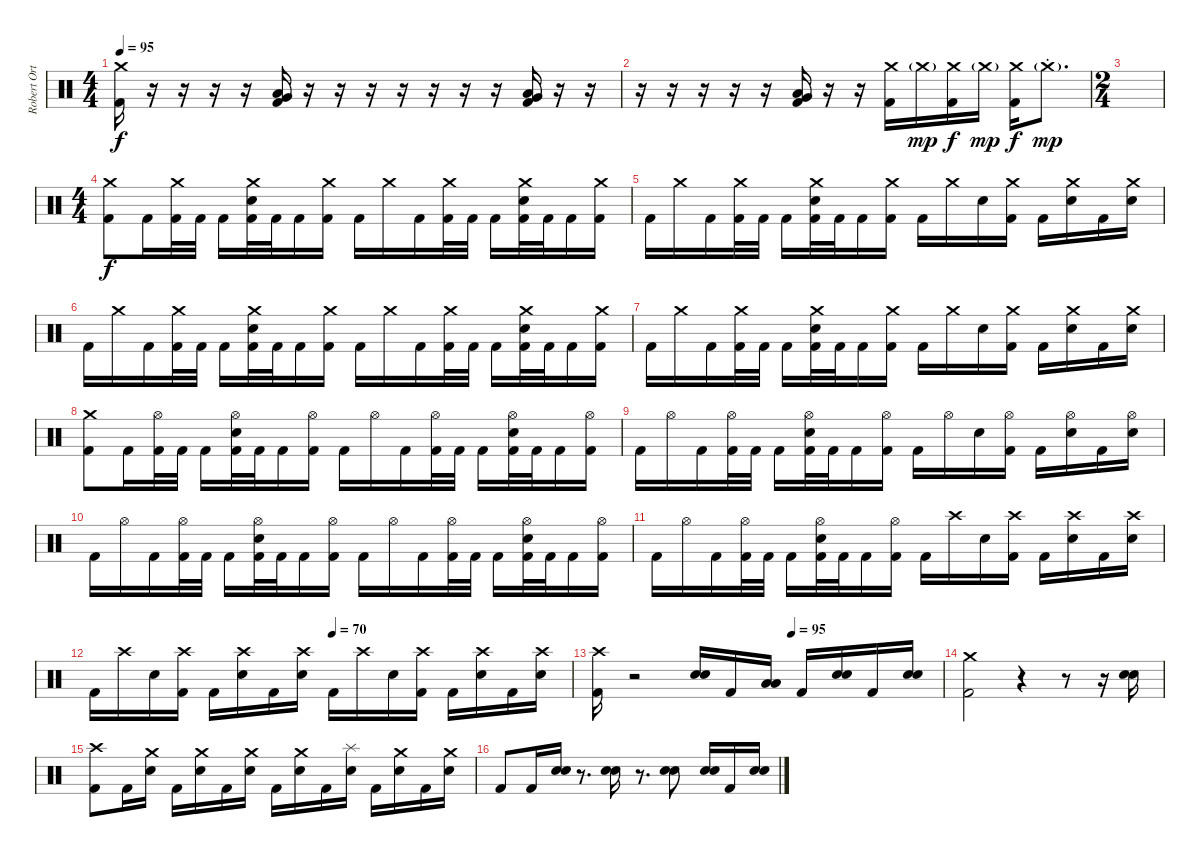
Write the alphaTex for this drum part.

\track ("Robert Ortiz (Drums)" "Robert Ort") {instrument percussion}
\staff {score}
\articulation defaults
\ts (4 4)
\tempo 95
\clef neutral
\ks c
("Crash medium (hit)" "Kick (hit) 2").16{dy f volume 16} r.16 r.16 r.16 r.16 ("Very Low Tom (hit)" "Low Floor Tom (hit)" "Kick (hit) 2").16 r.16 r.16 r.16 r.16 r.16 r.16 r.16 ("Very Low Tom (hit)" "Low Floor Tom (hit)" "Kick (hit) 2").16 r.16 r.16 |
r.16 r.16 r.16 r.16 r.16 ("Very Low Tom (hit)" "Low Floor Tom (hit)" "Kick (hit) 2").16 r.16 r.16 ("Crash medium (hit)" "Kick (hit) 2").16 "Crash medium (hit)"{g}.16{dy mp} ("Crash medium (hit)" "Kick (hit) 2").16{dy f} "Crash medium (hit)"{g}.16{dy mp} ("Crash medium (hit)" "Kick (hit) 2").16{dy f} "Crash medium (hit)"{g st}.8{d dy mp} |
\ts (2 4)
|
\ts (4 4)
("Crash medium (hit)" "Kick (hit) 2").8{dy f volume 16} "Kick (hit) 2".16 ("Crash medium (hit)" "Kick (hit) 2").32 "Kick (hit) 2".32 "Kick (hit) 2".16 ("Crash medium (hit)" "Electric Snare (hit)" "Kick (hit) 2").32 "Kick (hit) 2".32 "Kick (hit) 2".16 ("Crash medium (hit)" "Kick (hit) 2").16 "Kick (hit) 2".16 "Crash medium (hit)".16 "Kick (hit) 2".16 ("Crash medium (hit)" "Kick (hit) 2").32 "Kick (hit) 2".32 "Kick (hit) 2".16 ("Crash medium (hit)" "Electric Snare (hit)" "Kick (hit) 2").32 "Kick (hit) 2".32 "Kick (hit) 2".16 ("Crash medium (hit)" "Kick (hit) 2").16 |
"Kick (hit) 2".16 "Crash medium (hit)".16 "Kick (hit) 2".16 ("Crash medium (hit)" "Kick (hit) 2").32 "Kick (hit) 2".32 "Kick (hit) 2".16 ("Crash medium (hit)" "Electric Snare (hit)" "Kick (hit) 2").32 "Kick (hit) 2".32 "Kick (hit) 2".16 ("Crash medium (hit)" "Kick (hit) 2").16 "Kick (hit) 2".16 "Crash medium (hit)".16 "Electric Snare (hit)".16 ("Crash medium (hit)" "Kick (hit) 2").16 "Kick (hit) 2".16 ("Crash medium (hit)" "Electric Snare (hit)").16 "Kick (hit) 2".16 ("Crash medium (hit)" "Electric Snare (hit)").16 |
"Kick (hit) 2".16 "Crash medium (hit)".16 "Kick (hit) 2".16 ("Crash medium (hit)" "Kick (hit) 2").32 "Kick (hit) 2".32 "Kick (hit) 2".16 ("Crash medium (hit)" "Electric Snare (hit)" "Kick (hit) 2").32 "Kick (hit) 2".32 "Kick (hit) 2".16 ("Crash medium (hit)" "Kick (hit) 2").16 "Kick (hit) 2".16 "Crash medium (hit)".16 "Kick (hit) 2".16 ("Crash medium (hit)" "Kick (hit) 2").32 "Kick (hit) 2".32 "Kick (hit) 2".16 ("Crash medium (hit)" "Electric Snare (hit)" "Kick (hit) 2").32 "Kick (hit) 2".32 "Kick (hit) 2".16 ("Crash medium (hit)" "Kick (hit) 2").16 |
"Kick (hit) 2".16 "Crash medium (hit)".16 "Kick (hit) 2".16 ("Crash medium (hit)" "Kick (hit) 2").32 "Kick (hit) 2".32 "Kick (hit) 2".16 ("Crash medium (hit)" "Electric Snare (hit)" "Kick (hit) 2").32 "Kick (hit) 2".32 "Kick (hit) 2".16 ("Crash medium (hit)" "Kick (hit) 2").16 "Kick (hit) 2".16 "Crash medium (hit)".16 "Electric Snare (hit)".16 ("Crash medium (hit)" "Kick (hit) 2").16 "Kick (hit) 2".16 ("Crash medium (hit)" "Electric Snare (hit)").16 "Kick (hit) 2".16 ("Crash medium (hit)" "Electric Snare (hit)").16 |
("Crash medium (hit)" "Kick (hit) 2").8{volume 16} "Kick (hit) 2".16 ("Hi-Hat (open)" "Kick (hit) 2").32 "Kick (hit) 2".32 "Kick (hit) 2".16 ("Hi-Hat (open)" "Electric Snare (hit)" "Kick (hit) 2").32 "Kick (hit) 2".32 "Kick (hit) 2".16 ("Hi-Hat (open)" "Kick (hit) 2").16 "Kick (hit) 2".16 "Hi-Hat (open)".16 "Kick (hit) 2".16 ("Hi-Hat (open)" "Kick (hit) 2").32 "Kick (hit) 2".32 "Kick (hit) 2".16 ("Hi-Hat (open)" "Electric Snare (hit)" "Kick (hit) 2").32 "Kick (hit) 2".32 "Kick (hit) 2".16 ("Hi-Hat (open)" "Kick (hit) 2").16 |
"Kick (hit) 2".16 "Hi-Hat (open)".16 "Kick (hit) 2".16 ("Hi-Hat (open)" "Kick (hit) 2").32 "Kick (hit) 2".32 "Kick (hit) 2".16 ("Hi-Hat (open)" "Electric Snare (hit)" "Kick (hit) 2").32 "Kick (hit) 2".32 "Kick (hit) 2".16 ("Hi-Hat (open)" "Kick (hit) 2").16 "Kick (hit) 2".16 "Hi-Hat (open)".16 "Electric Snare (hit)".16 ("Hi-Hat (open)" "Kick (hit) 2").16 "Kick (hit) 2".16 ("Hi-Hat (open)" "Electric Snare (hit)").16 "Kick (hit) 2".16 ("Hi-Hat (open)" "Electric Snare (hit)").16 |
"Kick (hit) 2".16 "Hi-Hat (open)".16 "Kick (hit) 2".16 ("Hi-Hat (open)" "Kick (hit) 2").32 "Kick (hit) 2".32 "Kick (hit) 2".16 ("Hi-Hat (open)" "Electric Snare (hit)" "Kick (hit) 2").32 "Kick (hit) 2".32 "Kick (hit) 2".16 ("Hi-Hat (open)" "Kick (hit) 2").16 "Kick (hit) 2".16 "Hi-Hat (open)".16 "Kick (hit) 2".16 ("Hi-Hat (open)" "Kick (hit) 2").32 "Kick (hit) 2".32 "Kick (hit) 2".16 ("Hi-Hat (open)" "Electric Snare (hit)" "Kick (hit) 2").32 "Kick (hit) 2".32 "Kick (hit) 2".16 ("Hi-Hat (open)" "Kick (hit) 2").16 |
"Kick (hit) 2".16 "Hi-Hat (open)".16 "Kick (hit) 2".16 ("Hi-Hat (open)" "Kick (hit) 2").32 "Kick (hit) 2".32 "Kick (hit) 2".16 ("Hi-Hat (open)" "Electric Snare (hit)" "Kick (hit) 2").32 "Kick (hit) 2".32 "Kick (hit) 2".16 ("Hi-Hat (open)" "Kick (hit) 2").16 "Kick (hit) 2".16 "Crash high (hit)".16 "Electric Snare (hit)".16 ("Crash high (hit)" "Kick (hit) 2").16 "Kick (hit) 2".16 ("Crash high (hit)" "Electric Snare (hit)").16 "Kick (hit) 2".16 ("Crash high (hit)" "Electric Snare (hit)").16 |
\tempo (70 0.5)
"Kick (hit) 2".16 "Crash high (hit)".16 "Electric Snare (hit)".16 ("Crash high (hit)" "Kick (hit) 2").16 "Kick (hit) 2".16 ("Crash high (hit)" "Electric Snare (hit)").16 "Kick (hit) 2".16 ("Crash high (hit)" "Electric Snare (hit)").16 "Kick (hit) 2".16 "Crash high (hit)".16 "Electric Snare (hit)".16 ("Crash high (hit)" "Kick (hit) 2").16 "Kick (hit) 2".16 ("Crash high (hit)" "Electric Snare (hit)").16 "Kick (hit) 2".16 ("Crash high (hit)" "Electric Snare (hit)").16 |
\tempo (95 0.5625)
("Crash high (hit)" "Kick (hit) 2").16 r.2 ("Electric Snare (hit)" "Electric Snare (hit)").16 "Kick (hit) 2".16 ("Low Tom (hit)" "Low Tom (hit)").16 "Kick (hit) 2".16 ("Electric Snare (hit)" "Electric Snare (hit)").16 "Kick (hit) 2".16 ("Electric Snare (hit)" "Electric Snare (hit)").16 |
("Crash medium (hit)" "Kick (hit) 2").2 r.4 r.8 r.16 ("Electric Snare (hit)" "Electric Snare (hit)").16 |
("Crash high (hit)" "Kick (hit) 2").8 "Kick (hit) 2".16 ("Crash medium (hit)" "Electric Snare (hit)").16 "Kick (hit) 2".16 ("Crash medium (hit)" "Electric Snare (hit)").16 "Kick (hit) 2".16 ("Crash medium (hit)" "Electric Snare (hit)").16 "Kick (hit) 2".16 ("Crash medium (hit)" "Electric Snare (hit)").16 "Kick (hit) 2".16 ("Splash (hit)" "Electric Snare (hit)").16 "Kick (hit) 2".16 ("Crash medium (hit)" "Electric Snare (hit)").16 "Kick (hit) 2".16 ("Crash medium (hit)" "Electric Snare (hit)").16 |
"Kick (hit) 2".8 "Kick (hit) 2".16 ("Electric Snare (hit)" "Electric Snare (hit)").16 r.8{d} ("Electric Snare (hit)" "Electric Snare (hit)").16 r.8{d} ("Electric Snare (hit)" "Electric Snare (hit)").8 ("Electric Snare (hit)" "Electric Snare (hit)").16 "Kick (hit) 2".16 ("Electric Snare (hit)" "Electric Snare (hit)").16
